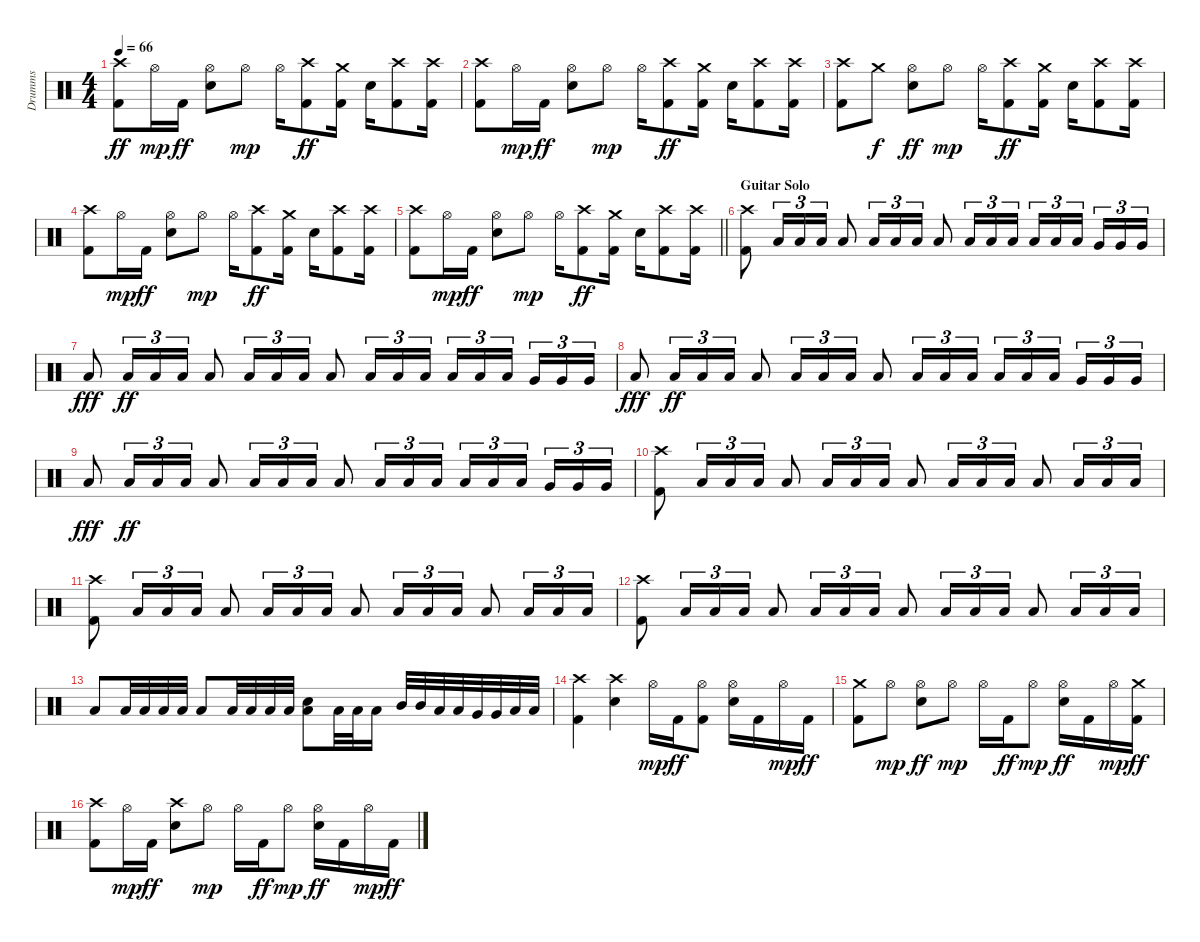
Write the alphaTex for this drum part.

\track ("Drumms" "Drumms") {instrument percussion}
\staff {score}
\articulation defaults
\ts (4 4)
\tempo 66
\clef neutral
\ks c
("Crash high (hit)" "Kick (hit) 2").8{dy ff} "Hi-Hat (open)".16{dy mp} "Kick (hit) 2".16{dy ff} ("Hi-Hat (open)" "Electric Snare (hit)").8 "Hi-Hat (open)".8{dy mp} "Hi-Hat (open)".16 ("Crash high (hit)" "Kick (hit) 2").8{dy ff} ("Crash medium (hit)" "Kick (hit) 2").16 "Electric Snare (hit)".16 ("Crash high (hit)" "Kick (hit) 2").8 ("Crash high (hit)" "Kick (hit) 2").16 |
("Crash high (hit)" "Kick (hit) 2").8 "Hi-Hat (open)".16{dy mp} "Kick (hit) 2".16{dy ff} ("Hi-Hat (open)" "Electric Snare (hit)").8 "Hi-Hat (open)".8{dy mp} "Hi-Hat (open)".16 ("Crash high (hit)" "Kick (hit) 2").8{dy ff} ("Crash medium (hit)" "Kick (hit) 2").16 "Electric Snare (hit)".16 ("Crash high (hit)" "Kick (hit) 2").8 ("Crash high (hit)" "Kick (hit) 2").16 |
("Crash high (hit)" "Kick (hit) 2").8 "Crash medium (hit)".8{dy f} ("Hi-Hat (open)" "Electric Snare (hit)").8{dy ff} "Hi-Hat (open)".8{dy mp} "Hi-Hat (open)".16 ("Crash high (hit)" "Kick (hit) 2").8{dy ff} ("Crash medium (hit)" "Kick (hit) 2").16 "Electric Snare (hit)".16 ("Crash high (hit)" "Kick (hit) 2").8 ("Crash high (hit)" "Kick (hit) 2").16 |
("Crash high (hit)" "Kick (hit) 2").8 "Hi-Hat (open)".16{dy mp} "Kick (hit) 2".16{dy ff} ("Hi-Hat (open)" "Electric Snare (hit)").8 "Hi-Hat (open)".8{dy mp} "Hi-Hat (open)".16 ("Crash high (hit)" "Kick (hit) 2").8{dy ff} ("Crash medium (hit)" "Kick (hit) 2").16 "Electric Snare (hit)".16 ("Crash high (hit)" "Kick (hit) 2").8 ("Crash high (hit)" "Kick (hit) 2").16 |
\barLineRight lightlight
("Crash high (hit)" "Kick (hit) 2").8 "Hi-Hat (open)".16{dy mp} "Kick (hit) 2".16{dy ff} ("Hi-Hat (open)" "Electric Snare (hit)").8 "Hi-Hat (open)".8{dy mp} "Hi-Hat (open)".16 ("Crash high (hit)" "Kick (hit) 2").8{dy ff} ("Crash medium (hit)" "Kick (hit) 2").16 "Electric Snare (hit)".16 ("Crash high (hit)" "Kick (hit) 2").8 ("Crash high (hit)" "Kick (hit) 2").16 |
\section ("" "Guitar Solo")
("Crash high (hit)" "Kick (hit) 2").8 "Low Tom (hit)".16{tu (3 2)} "Low Tom (hit)".16{tu (3 2)} "Low Tom (hit)".16{tu (3 2)} "Low Tom (hit)".8 "Low Tom (hit)".16{tu (3 2)} "Low Tom (hit)".16{tu (3 2)} "Low Tom (hit)".16{tu (3 2)} "Low Tom (hit)".8 "Low Tom (hit)".16{tu (3 2)} "Low Tom (hit)".16{tu (3 2)} "Low Tom (hit)".16{tu (3 2)} "Low Tom (hit)".16{tu (3 2)} "Low Tom (hit)".16{tu (3 2)} "Low Tom (hit)".16{tu (3 2)} "Very Low Tom (hit)".16{tu (3 2)} "Very Low Tom (hit)".16{tu (3 2)} "Very Low Tom (hit)".16{tu (3 2)} |
"Low Tom (hit)".8{dy fff} "Low Tom (hit)".16{tu (3 2) dy ff} "Low Tom (hit)".16{tu (3 2)} "Low Tom (hit)".16{tu (3 2)} "Low Tom (hit)".8 "Low Tom (hit)".16{tu (3 2)} "Low Tom (hit)".16{tu (3 2)} "Low Tom (hit)".16{tu (3 2)} "Low Tom (hit)".8 "Low Tom (hit)".16{tu (3 2)} "Low Tom (hit)".16{tu (3 2)} "Low Tom (hit)".16{tu (3 2)} "Low Tom (hit)".16{tu (3 2)} "Low Tom (hit)".16{tu (3 2)} "Low Tom (hit)".16{tu (3 2)} "Very Low Tom (hit)".16{tu (3 2)} "Very Low Tom (hit)".16{tu (3 2)} "Very Low Tom (hit)".16{tu (3 2)} |
"Low Tom (hit)".8{dy fff} "Low Tom (hit)".16{tu (3 2) dy ff} "Low Tom (hit)".16{tu (3 2)} "Low Tom (hit)".16{tu (3 2)} "Low Tom (hit)".8 "Low Tom (hit)".16{tu (3 2)} "Low Tom (hit)".16{tu (3 2)} "Low Tom (hit)".16{tu (3 2)} "Low Tom (hit)".8 "Low Tom (hit)".16{tu (3 2)} "Low Tom (hit)".16{tu (3 2)} "Low Tom (hit)".16{tu (3 2)} "Low Tom (hit)".16{tu (3 2)} "Low Tom (hit)".16{tu (3 2)} "Low Tom (hit)".16{tu (3 2)} "Very Low Tom (hit)".16{tu (3 2)} "Very Low Tom (hit)".16{tu (3 2)} "Very Low Tom (hit)".16{tu (3 2)} |
"Low Tom (hit)".8{dy fff} "Low Tom (hit)".16{tu (3 2) dy ff} "Low Tom (hit)".16{tu (3 2)} "Low Tom (hit)".16{tu (3 2)} "Low Tom (hit)".8 "Low Tom (hit)".16{tu (3 2)} "Low Tom (hit)".16{tu (3 2)} "Low Tom (hit)".16{tu (3 2)} "Low Tom (hit)".8 "Low Tom (hit)".16{tu (3 2)} "Low Tom (hit)".16{tu (3 2)} "Low Tom (hit)".16{tu (3 2)} "Low Tom (hit)".16{tu (3 2)} "Low Tom (hit)".16{tu (3 2)} "Low Tom (hit)".16{tu (3 2)} "Very Low Tom (hit)".16{tu (3 2)} "Very Low Tom (hit)".16{tu (3 2)} "Very Low Tom (hit)".16{tu (3 2)} |
("Crash high (hit)" "Kick (hit) 2").8 "Low Tom (hit)".16{tu (3 2)} "Low Tom (hit)".16{tu (3 2)} "Low Tom (hit)".16{tu (3 2)} "Low Tom (hit)".8 "Low Tom (hit)".16{tu (3 2)} "Low Tom (hit)".16{tu (3 2)} "Low Tom (hit)".16{tu (3 2)} "Low Tom (hit)".8 "Low Tom (hit)".16{tu (3 2)} "Low Tom (hit)".16{tu (3 2)} "Low Tom (hit)".16{tu (3 2)} "Low Tom (hit)".8 "Low Tom (hit)".16{tu (3 2)} "Low Tom (hit)".16{tu (3 2)} "Low Tom (hit)".16{tu (3 2)} |
("Crash high (hit)" "Kick (hit) 2").8 "Low Tom (hit)".16{tu (3 2)} "Low Tom (hit)".16{tu (3 2)} "Low Tom (hit)".16{tu (3 2)} "Low Tom (hit)".8 "Low Tom (hit)".16{tu (3 2)} "Low Tom (hit)".16{tu (3 2)} "Low Tom (hit)".16{tu (3 2)} "Low Tom (hit)".8 "Low Tom (hit)".16{tu (3 2)} "Low Tom (hit)".16{tu (3 2)} "Low Tom (hit)".16{tu (3 2)} "Low Tom (hit)".8 "Low Tom (hit)".16{tu (3 2)} "Low Tom (hit)".16{tu (3 2)} "Low Tom (hit)".16{tu (3 2)} |
("Crash high (hit)" "Kick (hit) 2").8 "Low Tom (hit)".16{tu (3 2)} "Low Tom (hit)".16{tu (3 2)} "Low Tom (hit)".16{tu (3 2)} "Low Tom (hit)".8 "Low Tom (hit)".16{tu (3 2)} "Low Tom (hit)".16{tu (3 2)} "Low Tom (hit)".16{tu (3 2)} "Low Tom (hit)".8 "Low Tom (hit)".16{tu (3 2)} "Low Tom (hit)".16{tu (3 2)} "Low Tom (hit)".16{tu (3 2)} "Low Tom (hit)".8 "Low Tom (hit)".16{tu (3 2)} "Low Tom (hit)".16{tu (3 2)} "Low Tom (hit)".16{tu (3 2)} |
"Low Tom (hit)".8 "Low Tom (hit)".32 "Low Tom (hit)".32 "Low Tom (hit)".32 "Low Tom (hit)".32 "Low Tom (hit)".8 "Low Tom (hit)".32 "Low Tom (hit)".32 "Low Tom (hit)".32 "Low Tom (hit)".32 ("Low Tom (hit)" "Electric Snare (hit)").8 "Low Tom (hit)".32 "Low Tom (hit)".32 "Low Tom (hit)".16 "Mid Tom (hit)".32 "Mid Tom (hit)".32 "Low Tom (hit)".32 "Low Tom (hit)".32 "Very Low Tom (hit)".32 "Very Low Tom (hit)".32 "Low Floor Tom (hit)".32 "Low Floor Tom (hit)".32 |
\section ("" "")
("Crash high (hit)" "Kick (hit) 2").4 ("Crash high (hit)" "Electric Snare (hit)").4 "Hi-Hat (open)".16{dy mp} "Kick (hit) 2".16{dy ff} ("Hi-Hat (open)" "Kick (hit) 2").8 ("Hi-Hat (open)" "Electric Snare (hit)").16 "Kick (hit) 2".16 "Hi-Hat (open)".16{dy mp} "Kick (hit) 2".16{dy ff} |
("Crash medium (hit)" "Kick (hit) 2").8 "Hi-Hat (open)".8{dy mp} ("Hi-Hat (open)" "Electric Snare (hit)").8{dy ff} "Hi-Hat (open)".8{dy mp} "Hi-Hat (open)".16 "Kick (hit) 2".16{dy ff} "Hi-Hat (open)".8{dy mp} ("Hi-Hat (open)" "Electric Snare (hit)").16{dy ff} "Kick (hit) 2".16 "Hi-Hat (open)".16{dy mp} ("Crash medium (hit)" "Kick (hit) 2").16{dy ff} |
("Crash high (hit)" "Kick (hit) 2").8 "Hi-Hat (open)".16{dy mp} "Kick (hit) 2".16{dy ff} ("Crash high (hit)" "Electric Snare (hit)").8 "Hi-Hat (open)".8{dy mp} "Hi-Hat (open)".16 "Kick (hit) 2".16{dy ff} "Hi-Hat (open)".8{dy mp} ("Hi-Hat (open)" "Electric Snare (hit)").16{dy ff} "Kick (hit) 2".16 "Hi-Hat (open)".16{dy mp} "Kick (hit) 2".16{dy ff}
